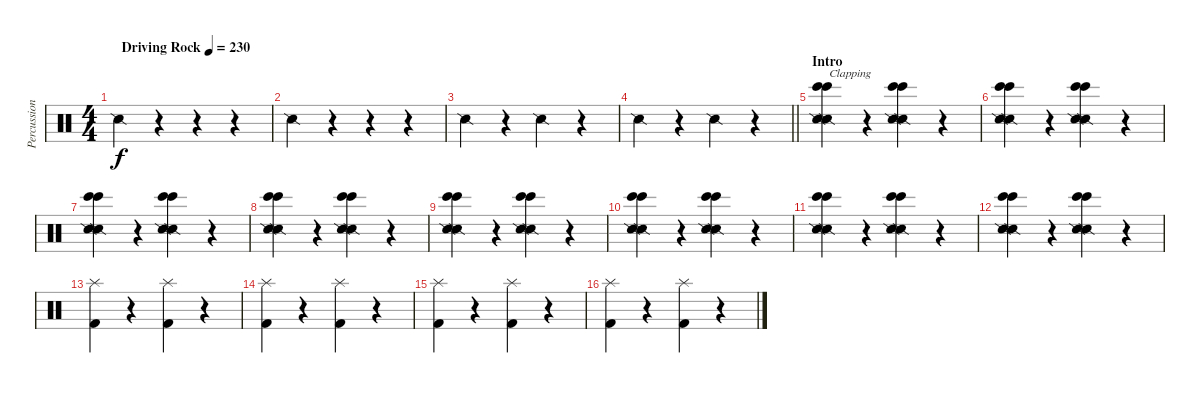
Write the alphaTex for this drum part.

\track ("Percussion" "Percussion") {instrument percussion}
\staff {score}
\articulation defaults
\ts (4 4)
\tempo (230 "Driving Rock")
\clef neutral
\ks c "Snare (side stick) 2".4{dy f volume 16}
r.4 r.4 r.4 |
"Snare (side stick) 2".4 r.4 r.4 r.4 |
"Snare (side stick) 2".4 r.4 "Snare (side stick) 2".4 r.4 |
\barLineRight lightlight "Snare (side stick) 2".4
r.4 "Snare (side stick) 2".4 r.4 |
\section ("" "Intro")
("Snare (side stick) 2" "Bongo High (hit)" "Snare (side stick) 2" "Bongo High (hit)").4{txt "Clapping"} r.4 ("Snare (side stick) 2" "Bongo High (hit)" "Snare (side stick) 2" "Bongo High (hit)").4 r.4 |
("Snare (side stick) 2" "Bongo High (hit)" "Snare (side stick) 2" "Bongo High (hit)").4 r.4 ("Snare (side stick) 2" "Bongo High (hit)" "Snare (side stick) 2" "Bongo High (hit)").4 r.4 |
("Snare (side stick) 2" "Bongo High (hit)" "Snare (side stick) 2" "Bongo High (hit)").4 r.4 ("Snare (side stick) 2" "Bongo High (hit)" "Snare (side stick) 2" "Bongo High (hit)").4 r.4 |
("Snare (side stick) 2" "Bongo High (hit)" "Snare (side stick) 2" "Bongo High (hit)").4 r.4 ("Snare (side stick) 2" "Bongo High (hit)" "Snare (side stick) 2" "Bongo High (hit)").4 r.4 |
("Snare (side stick) 2" "Bongo High (hit)" "Snare (side stick) 2" "Bongo High (hit)").4 r.4 ("Snare (side stick) 2" "Bongo High (hit)" "Snare (side stick) 2" "Bongo High (hit)").4 r.4 |
("Snare (side stick) 2" "Bongo High (hit)" "Snare (side stick) 2" "Bongo High (hit)").4 r.4 ("Snare (side stick) 2" "Bongo High (hit)" "Snare (side stick) 2" "Bongo High (hit)").4 r.4 |
("Snare (side stick) 2" "Bongo High (hit)" "Snare (side stick) 2" "Bongo High (hit)").4 r.4 ("Snare (side stick) 2" "Bongo High (hit)" "Snare (side stick) 2" "Bongo High (hit)").4 r.4 |
("Snare (side stick) 2" "Bongo High (hit)" "Snare (side stick) 2" "Bongo High (hit)").4 r.4 ("Snare (side stick) 2" "Bongo High (hit)" "Snare (side stick) 2" "Bongo High (hit)").4 r.4 |
("Kick (hit) 2" "Splash (hit)").4 r.4 ("Kick (hit) 2" "Splash (hit)").4 r.4 |
("Kick (hit) 2" "Splash (hit)").4 r.4 ("Kick (hit) 2" "Splash (hit)").4 r.4 |
("Kick (hit) 2" "Splash (hit)").4 r.4 ("Kick (hit) 2" "Splash (hit)").4 r.4 |
("Kick (hit) 2" "Splash (hit)").4 r.4 ("Kick (hit) 2" "Splash (hit)").4 r.4
